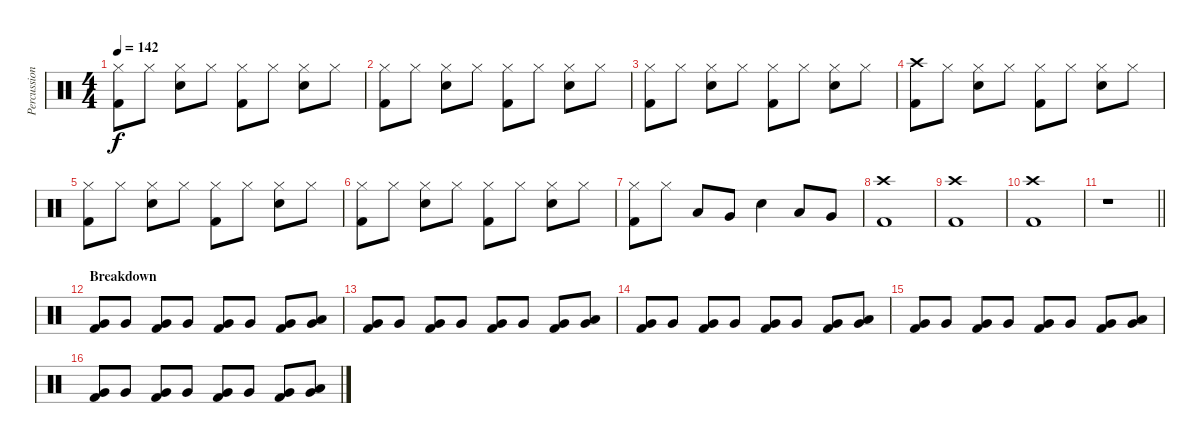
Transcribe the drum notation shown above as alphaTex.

\track ("Percussion" "Percussion") {instrument percussion}
\staff {score}
\articulation defaults
\ts (4 4)
\tempo 142
\clef neutral
\ks c
("Hi-Hat (closed)" "Kick (hit) 2").8{dy f} "Hi-Hat (closed)".8 ("Hi-Hat (closed)" "Electric Snare (hit)").8 "Hi-Hat (closed)".8 ("Hi-Hat (closed)" "Kick (hit) 2").8 "Hi-Hat (closed)".8 ("Hi-Hat (closed)" "Electric Snare (hit)").8 "Hi-Hat (closed)".8 |
("Hi-Hat (closed)" "Kick (hit) 2").8 "Hi-Hat (closed)".8 ("Hi-Hat (closed)" "Electric Snare (hit)").8 "Hi-Hat (closed)".8 ("Hi-Hat (closed)" "Kick (hit) 2").8 "Hi-Hat (closed)".8 ("Hi-Hat (closed)" "Electric Snare (hit)").8 "Hi-Hat (closed)".8 |
("Hi-Hat (closed)" "Kick (hit) 2").8 "Hi-Hat (closed)".8 ("Hi-Hat (closed)" "Electric Snare (hit)").8 "Hi-Hat (closed)".8 ("Hi-Hat (closed)" "Kick (hit) 2").8 "Hi-Hat (closed)".8 ("Hi-Hat (closed)" "Electric Snare (hit)").8 "Hi-Hat (closed)".8 |
("Crash high (hit)" "Kick (hit) 2").8 "Hi-Hat (closed)".8 ("Hi-Hat (closed)" "Electric Snare (hit)").8 "Hi-Hat (closed)".8 ("Hi-Hat (closed)" "Kick (hit) 2").8 "Hi-Hat (closed)".8 ("Hi-Hat (closed)" "Electric Snare (hit)").8 "Hi-Hat (closed)".8 |
("Hi-Hat (closed)" "Kick (hit) 2").8 "Hi-Hat (closed)".8 ("Hi-Hat (closed)" "Electric Snare (hit)").8 "Hi-Hat (closed)".8 ("Hi-Hat (closed)" "Kick (hit) 2").8 "Hi-Hat (closed)".8 ("Hi-Hat (closed)" "Electric Snare (hit)").8 "Hi-Hat (closed)".8 |
("Hi-Hat (closed)" "Kick (hit) 2").8 "Hi-Hat (closed)".8 ("Hi-Hat (closed)" "Electric Snare (hit)").8 "Hi-Hat (closed)".8 ("Hi-Hat (closed)" "Kick (hit) 2").8 "Hi-Hat (closed)".8 ("Hi-Hat (closed)" "Electric Snare (hit)").8 "Hi-Hat (closed)".8 |
("Hi-Hat (closed)" "Kick (hit) 2").8 "Hi-Hat (closed)".8 "Low Tom (hit)".8 "Very Low Tom (hit)".8 "Electric Snare (hit)".4 "Low Tom (hit)".8 "Very Low Tom (hit)".8 |
("Crash high (hit)" "Kick (hit) 2").1 |
("Crash high (hit)" "Kick (hit) 2").1 |
("Crash high (hit)" "Kick (hit) 2").1 |
\barLineRight lightlight
r.1 |
\section ("" "Breakdown")
("Very Low Tom (hit)" "Kick (hit) 2").8 "Very Low Tom (hit)".8 ("Very Low Tom (hit)" "Kick (hit) 2").8 "Very Low Tom (hit)".8 ("Very Low Tom (hit)" "Kick (hit) 2").8 "Very Low Tom (hit)".8 ("Very Low Tom (hit)" "Kick (hit) 2").8 ("Low Tom (hit)" "Very Low Tom (hit)").8 |
("Very Low Tom (hit)" "Kick (hit) 2").8 "Very Low Tom (hit)".8 ("Very Low Tom (hit)" "Kick (hit) 2").8 "Very Low Tom (hit)".8 ("Very Low Tom (hit)" "Kick (hit) 2").8 "Very Low Tom (hit)".8 ("Very Low Tom (hit)" "Kick (hit) 2").8 ("Low Tom (hit)" "Very Low Tom (hit)").8 |
("Very Low Tom (hit)" "Kick (hit) 2").8 "Very Low Tom (hit)".8 ("Very Low Tom (hit)" "Kick (hit) 2").8 "Very Low Tom (hit)".8 ("Very Low Tom (hit)" "Kick (hit) 2").8 "Very Low Tom (hit)".8 ("Very Low Tom (hit)" "Kick (hit) 2").8 ("Low Tom (hit)" "Very Low Tom (hit)").8 |
("Very Low Tom (hit)" "Kick (hit) 2").8 "Very Low Tom (hit)".8 ("Very Low Tom (hit)" "Kick (hit) 2").8 "Very Low Tom (hit)".8 ("Very Low Tom (hit)" "Kick (hit) 2").8 "Very Low Tom (hit)".8 ("Very Low Tom (hit)" "Kick (hit) 2").8 ("Low Tom (hit)" "Very Low Tom (hit)").8 |
("Very Low Tom (hit)" "Kick (hit) 2").8 "Very Low Tom (hit)".8 ("Very Low Tom (hit)" "Kick (hit) 2").8 "Very Low Tom (hit)".8 ("Very Low Tom (hit)" "Kick (hit) 2").8 "Very Low Tom (hit)".8 ("Very Low Tom (hit)" "Kick (hit) 2").8 ("Low Tom (hit)" "Very Low Tom (hit)").8
